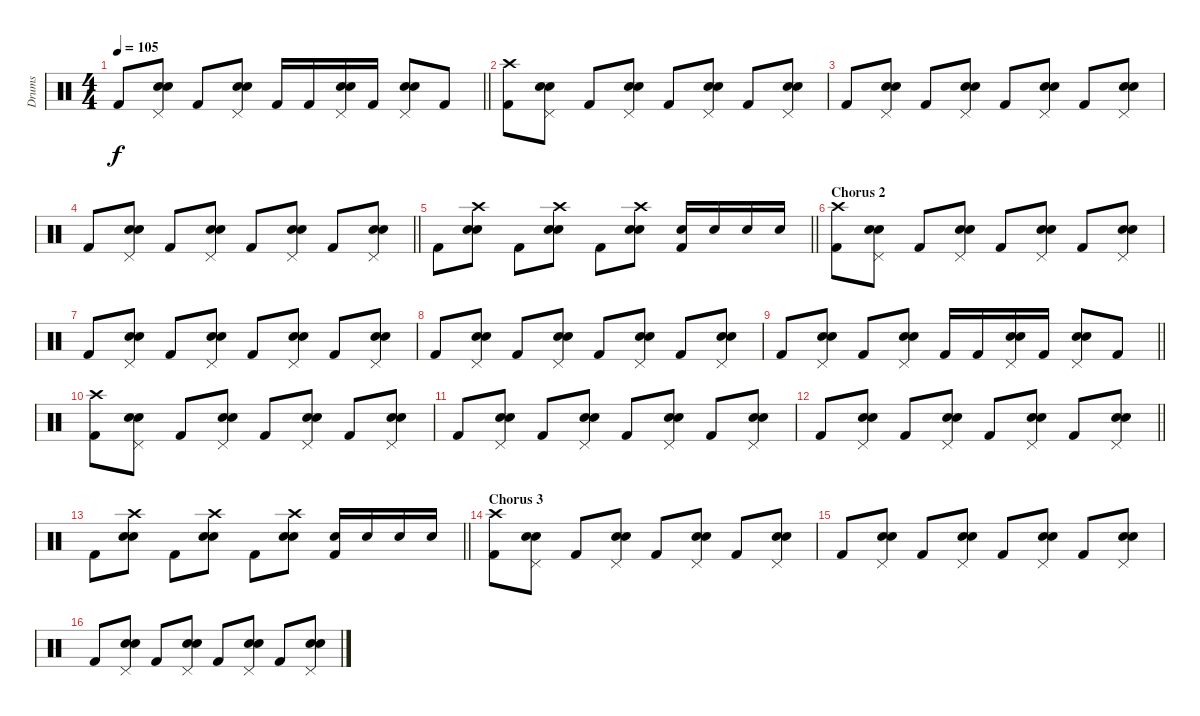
\track ("Drums" "Drums") {instrument percussion}
\staff {score}
\articulation defaults
\ts (4 4)
\tempo 105
\clef neutral
\barLineRight lightlight
\ks c "Kick (hit) 2".8{dy f}
("Pedal Hi-Hat (hit)" "Electric Snare (hit)" "Hand Clap (hit)").8 "Kick (hit) 2".8 ("Pedal Hi-Hat (hit)" "Electric Snare (hit)" "Hand Clap (hit)").8 "Kick (hit) 2".16 "Kick (hit) 2".16 ("Pedal Hi-Hat (hit)" "Electric Snare (hit)" "Hand Clap (hit)").16 "Kick (hit) 2".16 ("Pedal Hi-Hat (hit)" "Electric Snare (hit)" "Hand Clap (hit)").8 "Kick (hit) 2".8 |
("Crash high (hit)" "Kick (hit) 2").8 ("Pedal Hi-Hat (hit)" "Electric Snare (hit)" "Hand Clap (hit)").8 "Kick (hit) 2".8 ("Pedal Hi-Hat (hit)" "Electric Snare (hit)" "Hand Clap (hit)").8 "Kick (hit) 2".8 ("Pedal Hi-Hat (hit)" "Electric Snare (hit)" "Hand Clap (hit)").8 "Kick (hit) 2".8 ("Pedal Hi-Hat (hit)" "Electric Snare (hit)" "Hand Clap (hit)").8 |
"Kick (hit) 2".8 ("Pedal Hi-Hat (hit)" "Electric Snare (hit)" "Hand Clap (hit)").8 "Kick (hit) 2".8 ("Pedal Hi-Hat (hit)" "Electric Snare (hit)" "Hand Clap (hit)").8 "Kick (hit) 2".8 ("Pedal Hi-Hat (hit)" "Electric Snare (hit)" "Hand Clap (hit)").8 "Kick (hit) 2".8 ("Pedal Hi-Hat (hit)" "Electric Snare (hit)" "Hand Clap (hit)").8 |
\barLineRight lightlight "Kick (hit) 2".8
("Pedal Hi-Hat (hit)" "Electric Snare (hit)" "Hand Clap (hit)").8 "Kick (hit) 2".8 ("Pedal Hi-Hat (hit)" "Electric Snare (hit)" "Hand Clap (hit)").8 "Kick (hit) 2".8 ("Pedal Hi-Hat (hit)" "Electric Snare (hit)" "Hand Clap (hit)").8 "Kick (hit) 2".8 ("Pedal Hi-Hat (hit)" "Electric Snare (hit)" "Hand Clap (hit)").8 |
\barLineRight lightlight "Kick (hit) 2".8
("Crash high (hit)" "Electric Snare (hit)" "Hand Clap (hit)").8 "Kick (hit) 2".8 ("Crash high (hit)" "Electric Snare (hit)" "Hand Clap (hit)").8 "Kick (hit) 2".8 ("Crash high (hit)" "Electric Snare (hit)" "Hand Clap (hit)").8 ("Electric Snare (hit)" "Kick (hit) 2").16 "Electric Snare (hit)".16 "Electric Snare (hit)".16 "Electric Snare (hit)".16 |
\section ("" "Chorus 2")
("Crash high (hit)" "Kick (hit) 2").8 ("Pedal Hi-Hat (hit)" "Electric Snare (hit)" "Hand Clap (hit)").8 "Kick (hit) 2".8 ("Pedal Hi-Hat (hit)" "Electric Snare (hit)" "Hand Clap (hit)").8 "Kick (hit) 2".8 ("Pedal Hi-Hat (hit)" "Electric Snare (hit)" "Hand Clap (hit)").8 "Kick (hit) 2".8 ("Pedal Hi-Hat (hit)" "Electric Snare (hit)" "Hand Clap (hit)").8 |
"Kick (hit) 2".8 ("Pedal Hi-Hat (hit)" "Electric Snare (hit)" "Hand Clap (hit)").8 "Kick (hit) 2".8 ("Pedal Hi-Hat (hit)" "Electric Snare (hit)" "Hand Clap (hit)").8 "Kick (hit) 2".8 ("Pedal Hi-Hat (hit)" "Electric Snare (hit)" "Hand Clap (hit)").8 "Kick (hit) 2".8 ("Pedal Hi-Hat (hit)" "Electric Snare (hit)" "Hand Clap (hit)").8 |
"Kick (hit) 2".8 ("Pedal Hi-Hat (hit)" "Electric Snare (hit)" "Hand Clap (hit)").8 "Kick (hit) 2".8 ("Pedal Hi-Hat (hit)" "Electric Snare (hit)" "Hand Clap (hit)").8 "Kick (hit) 2".8 ("Pedal Hi-Hat (hit)" "Electric Snare (hit)" "Hand Clap (hit)").8 "Kick (hit) 2".8 ("Pedal Hi-Hat (hit)" "Electric Snare (hit)" "Hand Clap (hit)").8 |
\barLineRight lightlight "Kick (hit) 2".8
("Pedal Hi-Hat (hit)" "Electric Snare (hit)" "Hand Clap (hit)").8 "Kick (hit) 2".8 ("Pedal Hi-Hat (hit)" "Electric Snare (hit)" "Hand Clap (hit)").8 "Kick (hit) 2".16 "Kick (hit) 2".16 ("Pedal Hi-Hat (hit)" "Electric Snare (hit)" "Hand Clap (hit)").16 "Kick (hit) 2".16 ("Pedal Hi-Hat (hit)" "Electric Snare (hit)" "Hand Clap (hit)").8 "Kick (hit) 2".8 |
("Crash high (hit)" "Kick (hit) 2").8 ("Pedal Hi-Hat (hit)" "Electric Snare (hit)" "Hand Clap (hit)").8 "Kick (hit) 2".8 ("Pedal Hi-Hat (hit)" "Electric Snare (hit)" "Hand Clap (hit)").8 "Kick (hit) 2".8 ("Pedal Hi-Hat (hit)" "Electric Snare (hit)" "Hand Clap (hit)").8 "Kick (hit) 2".8 ("Pedal Hi-Hat (hit)" "Electric Snare (hit)" "Hand Clap (hit)").8 |
"Kick (hit) 2".8 ("Pedal Hi-Hat (hit)" "Electric Snare (hit)" "Hand Clap (hit)").8 "Kick (hit) 2".8 ("Pedal Hi-Hat (hit)" "Electric Snare (hit)" "Hand Clap (hit)").8 "Kick (hit) 2".8 ("Pedal Hi-Hat (hit)" "Electric Snare (hit)" "Hand Clap (hit)").8 "Kick (hit) 2".8 ("Pedal Hi-Hat (hit)" "Electric Snare (hit)" "Hand Clap (hit)").8 |
\barLineRight lightlight "Kick (hit) 2".8
("Pedal Hi-Hat (hit)" "Electric Snare (hit)" "Hand Clap (hit)").8 "Kick (hit) 2".8 ("Pedal Hi-Hat (hit)" "Electric Snare (hit)" "Hand Clap (hit)").8 "Kick (hit) 2".8 ("Pedal Hi-Hat (hit)" "Electric Snare (hit)" "Hand Clap (hit)").8 "Kick (hit) 2".8 ("Pedal Hi-Hat (hit)" "Electric Snare (hit)" "Hand Clap (hit)").8 |
\barLineRight lightlight "Kick (hit) 2".8
("Crash high (hit)" "Electric Snare (hit)" "Hand Clap (hit)").8 "Kick (hit) 2".8 ("Crash high (hit)" "Electric Snare (hit)" "Hand Clap (hit)").8 "Kick (hit) 2".8 ("Crash high (hit)" "Electric Snare (hit)" "Hand Clap (hit)").8 ("Electric Snare (hit)" "Kick (hit) 2").16 "Electric Snare (hit)".16 "Electric Snare (hit)".16 "Electric Snare (hit)".16 |
\section ("" "Chorus 3")
("Crash high (hit)" "Kick (hit) 2").8 ("Pedal Hi-Hat (hit)" "Electric Snare (hit)" "Hand Clap (hit)").8 "Kick (hit) 2".8 ("Pedal Hi-Hat (hit)" "Electric Snare (hit)" "Hand Clap (hit)").8 "Kick (hit) 2".8 ("Pedal Hi-Hat (hit)" "Electric Snare (hit)" "Hand Clap (hit)").8 "Kick (hit) 2".8 ("Pedal Hi-Hat (hit)" "Electric Snare (hit)" "Hand Clap (hit)").8 |
"Kick (hit) 2".8 ("Pedal Hi-Hat (hit)" "Electric Snare (hit)" "Hand Clap (hit)").8 "Kick (hit) 2".8 ("Pedal Hi-Hat (hit)" "Electric Snare (hit)" "Hand Clap (hit)").8 "Kick (hit) 2".8 ("Pedal Hi-Hat (hit)" "Electric Snare (hit)" "Hand Clap (hit)").8 "Kick (hit) 2".8 ("Pedal Hi-Hat (hit)" "Electric Snare (hit)" "Hand Clap (hit)").8 |
"Kick (hit) 2".8 ("Pedal Hi-Hat (hit)" "Electric Snare (hit)" "Hand Clap (hit)").8 "Kick (hit) 2".8 ("Pedal Hi-Hat (hit)" "Electric Snare (hit)" "Hand Clap (hit)").8 "Kick (hit) 2".8 ("Pedal Hi-Hat (hit)" "Electric Snare (hit)" "Hand Clap (hit)").8 "Kick (hit) 2".8 ("Pedal Hi-Hat (hit)" "Electric Snare (hit)" "Hand Clap (hit)").8
